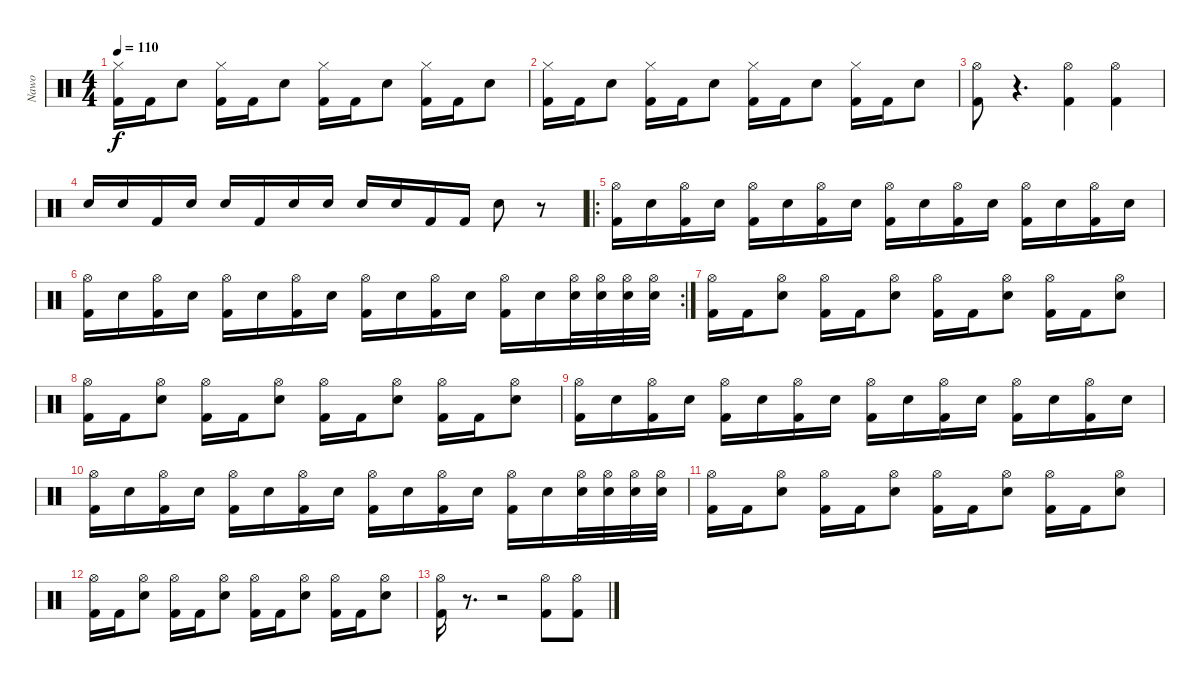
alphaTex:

\track ("Nawo" "Nawo") {instrument percussion}
\staff {score}
\articulation defaults
\ts (4 4)
\tempo 110
\clef neutral
\ks c
("Hi-Hat (closed)" "Kick (hit) 2").16{dy f} "Kick (hit) 2".16 "Electric Snare (hit)".8 ("Hi-Hat (closed)" "Kick (hit) 2").16 "Kick (hit) 2".16 "Electric Snare (hit)".8 ("Hi-Hat (closed)" "Kick (hit) 2").16 "Kick (hit) 2".16 "Electric Snare (hit)".8 ("Hi-Hat (closed)" "Kick (hit) 2").16 "Kick (hit) 2".16 "Electric Snare (hit)".8 |
("Hi-Hat (closed)" "Kick (hit) 2").16 "Kick (hit) 2".16 "Electric Snare (hit)".8 ("Hi-Hat (closed)" "Kick (hit) 2").16 "Kick (hit) 2".16 "Electric Snare (hit)".8 ("Hi-Hat (closed)" "Kick (hit) 2").16 "Kick (hit) 2".16 "Electric Snare (hit)".8 ("Hi-Hat (closed)" "Kick (hit) 2").16 "Kick (hit) 2".16 "Electric Snare (hit)".8 |
("Hi-Hat (open)" "Kick (hit) 2").8 r.4{d} ("Hi-Hat (open)" "Kick (hit) 2").4 ("Hi-Hat (open)" "Kick (hit) 2").4 |
"Electric Snare (hit)".16 "Electric Snare (hit)".16 "Kick (hit) 2".16 "Electric Snare (hit)".16 "Electric Snare (hit)".16 "Kick (hit) 2".16 "Electric Snare (hit)".16 "Electric Snare (hit)".16 "Electric Snare (hit)".16 "Electric Snare (hit)".16 "Kick (hit) 2".16 "Kick (hit) 2".16 "Electric Snare (hit)".8 r.8 |
\ro
("Hi-Hat (open)" "Kick (hit) 2").16 "Electric Snare (hit)".16 ("Hi-Hat (open)" "Kick (hit) 2").16 "Electric Snare (hit)".16 ("Hi-Hat (open)" "Kick (hit) 2").16 "Electric Snare (hit)".16 ("Hi-Hat (open)" "Kick (hit) 2").16 "Electric Snare (hit)".16 ("Hi-Hat (open)" "Kick (hit) 2").16 "Electric Snare (hit)".16 ("Hi-Hat (open)" "Kick (hit) 2").16 "Electric Snare (hit)".16 ("Hi-Hat (open)" "Kick (hit) 2").16 "Electric Snare (hit)".16 ("Hi-Hat (open)" "Kick (hit) 2").16 "Electric Snare (hit)".16 |
\rc 2
("Hi-Hat (open)" "Kick (hit) 2").16 "Electric Snare (hit)".16 ("Hi-Hat (open)" "Kick (hit) 2").16 "Electric Snare (hit)".16 ("Hi-Hat (open)" "Kick (hit) 2").16 "Electric Snare (hit)".16 ("Hi-Hat (open)" "Kick (hit) 2").16 "Electric Snare (hit)".16 ("Hi-Hat (open)" "Kick (hit) 2").16 "Electric Snare (hit)".16 ("Hi-Hat (open)" "Kick (hit) 2").16 "Electric Snare (hit)".16 ("Hi-Hat (open)" "Kick (hit) 2").16 "Electric Snare (hit)".16 ("Hi-Hat (open)" "Electric Snare (hit)").32 ("Hi-Hat (open)" "Electric Snare (hit)").32 ("Hi-Hat (open)" "Electric Snare (hit)").32 ("Hi-Hat (open)" "Electric Snare (hit)").32 |
("Hi-Hat (open)" "Kick (hit) 2").16 "Kick (hit) 2".16 ("Hi-Hat (open)" "Electric Snare (hit)").8 ("Hi-Hat (open)" "Kick (hit) 2").16 "Kick (hit) 2".16 ("Hi-Hat (open)" "Electric Snare (hit)").8 ("Hi-Hat (open)" "Kick (hit) 2").16 "Kick (hit) 2".16 ("Hi-Hat (open)" "Electric Snare (hit)").8 ("Hi-Hat (open)" "Kick (hit) 2").16 "Kick (hit) 2".16 ("Hi-Hat (open)" "Electric Snare (hit)").8 |
("Hi-Hat (open)" "Kick (hit) 2").16 "Kick (hit) 2".16 ("Hi-Hat (open)" "Electric Snare (hit)").8 ("Hi-Hat (open)" "Kick (hit) 2").16 "Kick (hit) 2".16 ("Hi-Hat (open)" "Electric Snare (hit)").8 ("Hi-Hat (open)" "Kick (hit) 2").16 "Kick (hit) 2".16 ("Hi-Hat (open)" "Electric Snare (hit)").8 ("Hi-Hat (open)" "Kick (hit) 2").16 "Kick (hit) 2".16 ("Hi-Hat (open)" "Electric Snare (hit)").8 |
("Hi-Hat (open)" "Kick (hit) 2").16 "Electric Snare (hit)".16 ("Hi-Hat (open)" "Kick (hit) 2").16 "Electric Snare (hit)".16 ("Hi-Hat (open)" "Kick (hit) 2").16 "Electric Snare (hit)".16 ("Hi-Hat (open)" "Kick (hit) 2").16 "Electric Snare (hit)".16 ("Hi-Hat (open)" "Kick (hit) 2").16 "Electric Snare (hit)".16 ("Hi-Hat (open)" "Kick (hit) 2").16 "Electric Snare (hit)".16 ("Hi-Hat (open)" "Kick (hit) 2").16 "Electric Snare (hit)".16 ("Hi-Hat (open)" "Kick (hit) 2").16 "Electric Snare (hit)".16 |
("Hi-Hat (open)" "Kick (hit) 2").16 "Electric Snare (hit)".16 ("Hi-Hat (open)" "Kick (hit) 2").16 "Electric Snare (hit)".16 ("Hi-Hat (open)" "Kick (hit) 2").16 "Electric Snare (hit)".16 ("Hi-Hat (open)" "Kick (hit) 2").16 "Electric Snare (hit)".16 ("Hi-Hat (open)" "Kick (hit) 2").16 "Electric Snare (hit)".16 ("Hi-Hat (open)" "Kick (hit) 2").16 "Electric Snare (hit)".16 ("Hi-Hat (open)" "Kick (hit) 2").16 "Electric Snare (hit)".16 ("Hi-Hat (open)" "Electric Snare (hit)").32 ("Hi-Hat (open)" "Electric Snare (hit)").32 ("Hi-Hat (open)" "Electric Snare (hit)").32 ("Hi-Hat (open)" "Electric Snare (hit)").32 |
("Hi-Hat (open)" "Kick (hit) 2").16 "Kick (hit) 2".16 ("Hi-Hat (open)" "Electric Snare (hit)").8 ("Hi-Hat (open)" "Kick (hit) 2").16 "Kick (hit) 2".16 ("Hi-Hat (open)" "Electric Snare (hit)").8 ("Hi-Hat (open)" "Kick (hit) 2").16 "Kick (hit) 2".16 ("Hi-Hat (open)" "Electric Snare (hit)").8 ("Hi-Hat (open)" "Kick (hit) 2").16 "Kick (hit) 2".16 ("Hi-Hat (open)" "Electric Snare (hit)").8 |
("Hi-Hat (open)" "Kick (hit) 2").16 "Kick (hit) 2".16 ("Hi-Hat (open)" "Electric Snare (hit)").8 ("Hi-Hat (open)" "Kick (hit) 2").16 "Kick (hit) 2".16 ("Hi-Hat (open)" "Electric Snare (hit)").8 ("Hi-Hat (open)" "Kick (hit) 2").16 "Kick (hit) 2".16 ("Hi-Hat (open)" "Electric Snare (hit)").8 ("Hi-Hat (open)" "Kick (hit) 2").16 "Kick (hit) 2".16 ("Hi-Hat (open)" "Electric Snare (hit)").8 |
("Hi-Hat (open)" "Kick (hit) 2").16 r.8{d} r.2 ("Hi-Hat (open)" "Kick (hit) 2").8 ("Hi-Hat (open)" "Kick (hit) 2").8
